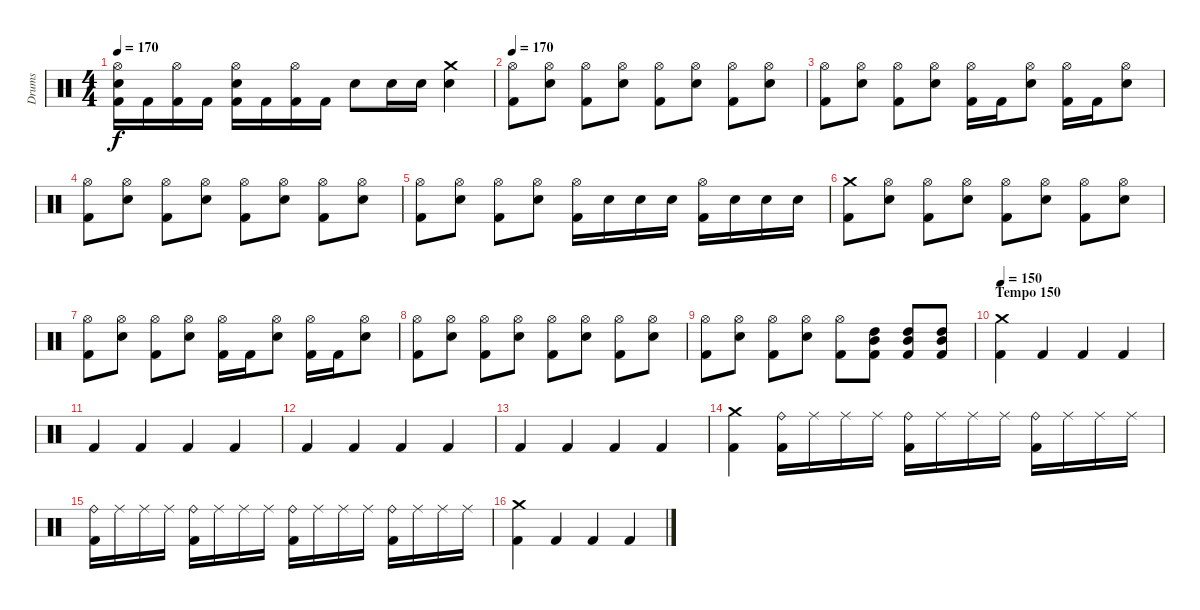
\track ("Drums" "Drums") {instrument percussion}
\staff {score}
\articulation defaults
\ts (4 4)
\tempo 170
\clef neutral
\ks c
("Hi-Hat (open)" "Electric Snare (hit)" "Kick (hit) 2").16{dy f} "Kick (hit) 2".16 ("Hi-Hat (open)" "Kick (hit) 2").16 "Kick (hit) 2".16 ("Hi-Hat (open)" "Electric Snare (hit)" "Kick (hit) 2").16 "Kick (hit) 2".16 ("Hi-Hat (open)" "Kick (hit) 2").16 "Kick (hit) 2".16 "Electric Snare (hit)".8 "Electric Snare (hit)".16 "Electric Snare (hit)".16 ("Crash medium (hit)" "Electric Snare (hit)").4 |
\tempo 170
("Hi-Hat (open)" "Kick (hit) 2").8 ("Hi-Hat (open)" "Electric Snare (hit)").8 ("Hi-Hat (open)" "Kick (hit) 2").8 ("Hi-Hat (open)" "Electric Snare (hit)").8 ("Hi-Hat (open)" "Kick (hit) 2").8 ("Hi-Hat (open)" "Electric Snare (hit)").8 ("Hi-Hat (open)" "Kick (hit) 2").8 ("Hi-Hat (open)" "Electric Snare (hit)").8 |
("Hi-Hat (open)" "Kick (hit) 2").8 ("Hi-Hat (open)" "Electric Snare (hit)").8 ("Hi-Hat (open)" "Kick (hit) 2").8 ("Hi-Hat (open)" "Electric Snare (hit)").8 ("Hi-Hat (open)" "Kick (hit) 2").16 "Kick (hit) 2".16 ("Hi-Hat (open)" "Electric Snare (hit)").8 ("Hi-Hat (open)" "Kick (hit) 2").16 "Kick (hit) 2".16 ("Hi-Hat (open)" "Electric Snare (hit)").8 |
("Hi-Hat (open)" "Kick (hit) 2").8 ("Hi-Hat (open)" "Electric Snare (hit)").8 ("Hi-Hat (open)" "Kick (hit) 2").8 ("Hi-Hat (open)" "Electric Snare (hit)").8 ("Hi-Hat (open)" "Kick (hit) 2").8 ("Hi-Hat (open)" "Electric Snare (hit)").8 ("Hi-Hat (open)" "Kick (hit) 2").8 ("Hi-Hat (open)" "Electric Snare (hit)").8 |
("Hi-Hat (open)" "Kick (hit) 2").8 ("Hi-Hat (open)" "Electric Snare (hit)").8 ("Hi-Hat (open)" "Kick (hit) 2").8 ("Hi-Hat (open)" "Electric Snare (hit)").8 ("Hi-Hat (open)" "Kick (hit) 2").16 "Electric Snare (hit)".16 "Electric Snare (hit)".16 "Electric Snare (hit)".16 ("Hi-Hat (open)" "Kick (hit) 2").16 "Electric Snare (hit)".16 "Electric Snare (hit)".16 "Electric Snare (hit)".16 |
("Crash medium (hit)" "Kick (hit) 2").8 ("Hi-Hat (open)" "Electric Snare (hit)").8 ("Hi-Hat (open)" "Kick (hit) 2").8 ("Hi-Hat (open)" "Electric Snare (hit)").8 ("Hi-Hat (open)" "Kick (hit) 2").8 ("Hi-Hat (open)" "Electric Snare (hit)").8 ("Hi-Hat (open)" "Kick (hit) 2").8 ("Hi-Hat (open)" "Electric Snare (hit)").8 |
("Hi-Hat (open)" "Kick (hit) 2").8 ("Hi-Hat (open)" "Electric Snare (hit)").8 ("Hi-Hat (open)" "Kick (hit) 2").8 ("Hi-Hat (open)" "Electric Snare (hit)").8 ("Hi-Hat (open)" "Kick (hit) 2").16 "Kick (hit) 2".16 ("Hi-Hat (open)" "Electric Snare (hit)").8 ("Hi-Hat (open)" "Kick (hit) 2").16 "Kick (hit) 2".16 ("Hi-Hat (open)" "Electric Snare (hit)").8 |
("Hi-Hat (open)" "Kick (hit) 2").8 ("Hi-Hat (open)" "Electric Snare (hit)").8 ("Hi-Hat (open)" "Kick (hit) 2").8 ("Hi-Hat (open)" "Electric Snare (hit)").8 ("Hi-Hat (open)" "Kick (hit) 2").8 ("Hi-Hat (open)" "Electric Snare (hit)").8 ("Hi-Hat (open)" "Kick (hit) 2").8 ("Hi-Hat (open)" "Electric Snare (hit)").8 |
("Hi-Hat (open)" "Kick (hit) 2").8 ("Hi-Hat (open)" "Electric Snare (hit)").8 ("Hi-Hat (open)" "Kick (hit) 2").8 ("Hi-Hat (open)" "Electric Snare (hit)").8 ("Hi-Hat (open)" "Kick (hit) 2").8 ("Mid Tom (hit)" "High Tom (hit)" "Kick (hit) 2").8 ("Mid Tom (hit)" "High Tom (hit)" "Kick (hit) 2").8 ("Mid Tom (hit)" "High Tom (hit)" "Kick (hit) 2").8 |
\section ("" "Tempo 150")
\tempo 150
("Crash medium (hit)" "Kick (hit) 2").4 "Kick (hit) 2".4 "Kick (hit) 2".4 "Kick (hit) 2".4 |
"Kick (hit) 2".4 "Kick (hit) 2".4 "Kick (hit) 2".4 "Kick (hit) 2".4 |
"Kick (hit) 2".4 "Kick (hit) 2".4 "Kick (hit) 2".4 "Kick (hit) 2".4 |
"Kick (hit) 2".4 "Kick (hit) 2".4 "Kick (hit) 2".4 "Kick (hit) 2".4 |
("Crash medium (hit)" "Kick (hit) 2").4 ("Ride (bell)" "Kick (hit) 2").16 "Ride (middle)".16 "Ride (middle)".16 "Ride (middle)".16 ("Ride (bell)" "Kick (hit) 2").16 "Ride (middle)".16 "Ride (middle)".16 "Ride (middle)".16 ("Ride (bell)" "Kick (hit) 2").16 "Ride (middle)".16 "Ride (middle)".16 "Ride (middle)".16 |
("Ride (bell)" "Kick (hit) 2").16 "Ride (middle)".16 "Ride (middle)".16 "Ride (middle)".16 ("Ride (bell)" "Kick (hit) 2").16 "Ride (middle)".16 "Ride (middle)".16 "Ride (middle)".16 ("Ride (bell)" "Kick (hit) 2").16 "Ride (middle)".16 "Ride (middle)".16 "Ride (middle)".16 ("Ride (bell)" "Kick (hit) 2").16 "Ride (middle)".16 "Ride (middle)".16 "Ride (middle)".16 |
("Crash medium (hit)" "Kick (hit) 2").4 "Kick (hit) 2".4 "Kick (hit) 2".4 "Kick (hit) 2".4
